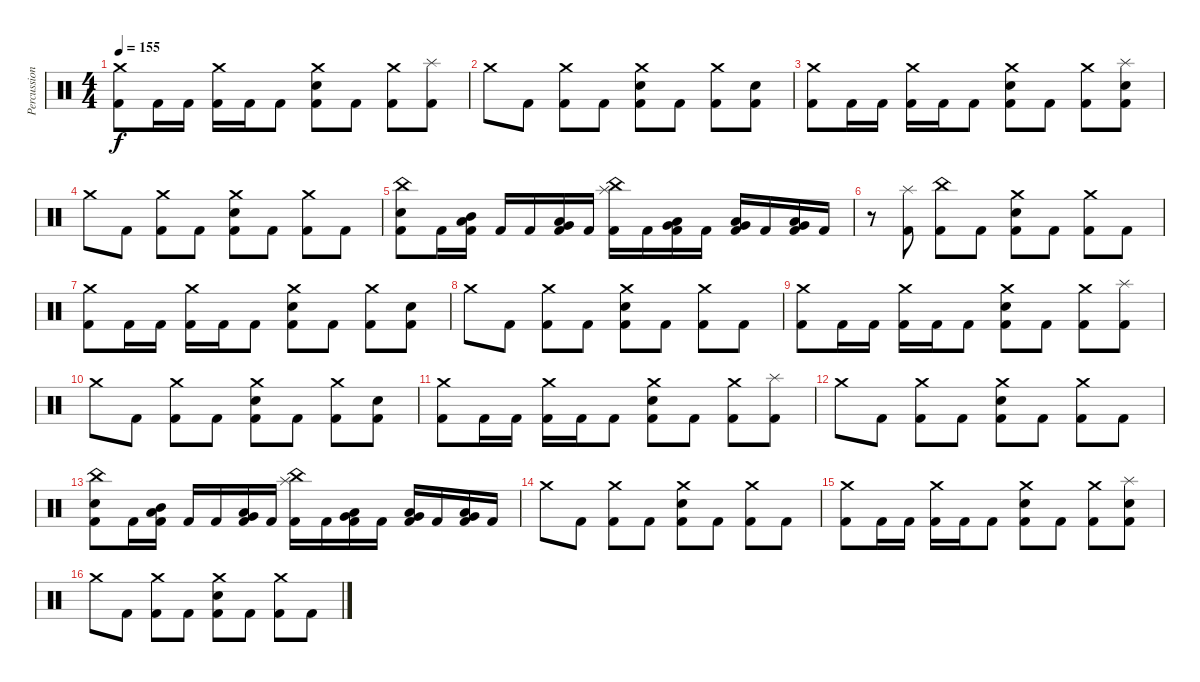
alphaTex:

\track ("Percussion" "Percussion") {instrument percussion}
\staff {score}
\articulation defaults
\ts (4 4)
\tempo 155
\clef neutral
\ks c
("Crash medium (hit)" "Kick (hit) 2").8{dy f} "Kick (hit) 2".16 "Kick (hit) 2".16 ("Crash medium (hit)" "Kick (hit) 2").16 "Kick (hit) 2".16 "Kick (hit) 2".8 ("Electric Snare (hit)" "Crash medium (hit)" "Kick (hit) 2").8 "Kick (hit) 2".8 ("Crash medium (hit)" "Kick (hit) 2").8 ("Splash (hit)" "Kick (hit) 2").8 |
"Crash medium (hit)".8 "Kick (hit) 2".8 ("Crash medium (hit)" "Kick (hit) 2").8 "Kick (hit) 2".8 ("Electric Snare (hit)" "Crash medium (hit)" "Kick (hit) 2").8 "Kick (hit) 2".8 ("Crash medium (hit)" "Kick (hit) 2").8 ("Electric Snare (hit)" "Kick (hit) 2").8 |
("Crash medium (hit)" "Kick (hit) 2").8 "Kick (hit) 2".16 "Kick (hit) 2".16 ("Crash medium (hit)" "Kick (hit) 2").16 "Kick (hit) 2".16 "Kick (hit) 2".8 ("Electric Snare (hit)" "Crash medium (hit)" "Kick (hit) 2").8 "Kick (hit) 2".8 ("Crash medium (hit)" "Kick (hit) 2").8 ("Electric Snare (hit)" "Splash (hit)" "Kick (hit) 2").8 |
"Crash medium (hit)".8 "Kick (hit) 2".8 ("Crash medium (hit)" "Kick (hit) 2").8 "Kick (hit) 2".8 ("Electric Snare (hit)" "Crash medium (hit)" "Kick (hit) 2").8 "Kick (hit) 2".8 ("Crash medium (hit)" "Kick (hit) 2").8 "Kick (hit) 2".8 |
("Electric Snare (hit)" "China (hit)" "Kick (hit) 2").8 "Kick (hit) 2".16 ("Mid Tom (hit)" "Low Tom (hit)" "Kick (hit) 2").16 "Kick (hit) 2".16 "Kick (hit) 2".16 ("Low Tom (hit)" "Very Low Tom (hit)" "Kick (hit) 2").16 "Kick (hit) 2".16 ("Splash (hit)" "China (hit)" "Kick (hit) 2").16 "Kick (hit) 2".16 ("Low Tom (hit)" "Very Low Tom (hit)" "Kick (hit) 2").16 "Kick (hit) 2".16 ("Very Low Tom (hit)" "Low Floor Tom (hit)" "Kick (hit) 2").16 "Kick (hit) 2".16 ("Very Low Tom (hit)" "Low Floor Tom (hit)" "Kick (hit) 2").16 "Kick (hit) 2".16 |
r.8 ("Splash (hit)" "Kick (hit) 2").8 ("China (hit)" "Kick (hit) 2").8 "Kick (hit) 2".8 ("Electric Snare (hit)" "Crash medium (hit)" "Kick (hit) 2").8 "Kick (hit) 2".8 ("Crash medium (hit)" "Kick (hit) 2").8 "Kick (hit) 2".8 |
("Crash medium (hit)" "Kick (hit) 2").8 "Kick (hit) 2".16 "Kick (hit) 2".16 ("Crash medium (hit)" "Kick (hit) 2").16 "Kick (hit) 2".16 "Kick (hit) 2".8 ("Electric Snare (hit)" "Crash medium (hit)" "Kick (hit) 2").8 "Kick (hit) 2".8 ("Crash medium (hit)" "Kick (hit) 2").8 ("Electric Snare (hit)" "Kick (hit) 2").8 |
"Crash medium (hit)".8 "Kick (hit) 2".8 ("Crash medium (hit)" "Kick (hit) 2").8 "Kick (hit) 2".8 ("Electric Snare (hit)" "Crash medium (hit)" "Kick (hit) 2").8 "Kick (hit) 2".8 ("Crash medium (hit)" "Kick (hit) 2").8 "Kick (hit) 2".8 |
("Crash medium (hit)" "Kick (hit) 2").8 "Kick (hit) 2".16 "Kick (hit) 2".16 ("Crash medium (hit)" "Kick (hit) 2").16 "Kick (hit) 2".16 "Kick (hit) 2".8 ("Electric Snare (hit)" "Crash medium (hit)" "Kick (hit) 2").8 "Kick (hit) 2".8 ("Crash medium (hit)" "Kick (hit) 2").8 ("Splash (hit)" "Kick (hit) 2").8 |
"Crash medium (hit)".8 "Kick (hit) 2".8 ("Crash medium (hit)" "Kick (hit) 2").8 "Kick (hit) 2".8 ("Electric Snare (hit)" "Crash medium (hit)" "Kick (hit) 2").8 "Kick (hit) 2".8 ("Crash medium (hit)" "Kick (hit) 2").8 ("Electric Snare (hit)" "Kick (hit) 2").8 |
("Crash medium (hit)" "Kick (hit) 2").8 "Kick (hit) 2".16 "Kick (hit) 2".16 ("Crash medium (hit)" "Kick (hit) 2").16 "Kick (hit) 2".16 "Kick (hit) 2".8 ("Electric Snare (hit)" "Crash medium (hit)" "Kick (hit) 2").8 "Kick (hit) 2".8 ("Crash medium (hit)" "Kick (hit) 2").8 ("Splash (hit)" "Kick (hit) 2").8 |
"Crash medium (hit)".8 "Kick (hit) 2".8 ("Crash medium (hit)" "Kick (hit) 2").8 "Kick (hit) 2".8 ("Electric Snare (hit)" "Crash medium (hit)" "Kick (hit) 2").8 "Kick (hit) 2".8 ("Crash medium (hit)" "Kick (hit) 2").8 "Kick (hit) 2".8 |
("Electric Snare (hit)" "China (hit)" "Kick (hit) 2").8 "Kick (hit) 2".16 ("Mid Tom (hit)" "Low Tom (hit)" "Kick (hit) 2").16 "Kick (hit) 2".16 "Kick (hit) 2".16 ("Low Tom (hit)" "Very Low Tom (hit)" "Kick (hit) 2").16 "Kick (hit) 2".16 ("Splash (hit)" "China (hit)" "Kick (hit) 2").16 "Kick (hit) 2".16 ("Low Tom (hit)" "Very Low Tom (hit)" "Kick (hit) 2").16 "Kick (hit) 2".16 ("Very Low Tom (hit)" "Low Floor Tom (hit)" "Kick (hit) 2").16 "Kick (hit) 2".16 ("Very Low Tom (hit)" "Low Floor Tom (hit)" "Kick (hit) 2").16 "Kick (hit) 2".16 |
"Crash medium (hit)".8 "Kick (hit) 2".8 ("Crash medium (hit)" "Kick (hit) 2").8 "Kick (hit) 2".8 ("Electric Snare (hit)" "Crash medium (hit)" "Kick (hit) 2").8 "Kick (hit) 2".8 ("Crash medium (hit)" "Kick (hit) 2").8 "Kick (hit) 2".8 |
("Crash medium (hit)" "Kick (hit) 2").8 "Kick (hit) 2".16 "Kick (hit) 2".16 ("Crash medium (hit)" "Kick (hit) 2").16 "Kick (hit) 2".16 "Kick (hit) 2".8 ("Electric Snare (hit)" "Crash medium (hit)" "Kick (hit) 2").8 "Kick (hit) 2".8 ("Crash medium (hit)" "Kick (hit) 2").8 ("Electric Snare (hit)" "Splash (hit)" "Kick (hit) 2").8 |
"Crash medium (hit)".8 "Kick (hit) 2".8 ("Crash medium (hit)" "Kick (hit) 2").8 "Kick (hit) 2".8 ("Electric Snare (hit)" "Crash medium (hit)" "Kick (hit) 2").8 "Kick (hit) 2".8 ("Crash medium (hit)" "Kick (hit) 2").8 "Kick (hit) 2".8
